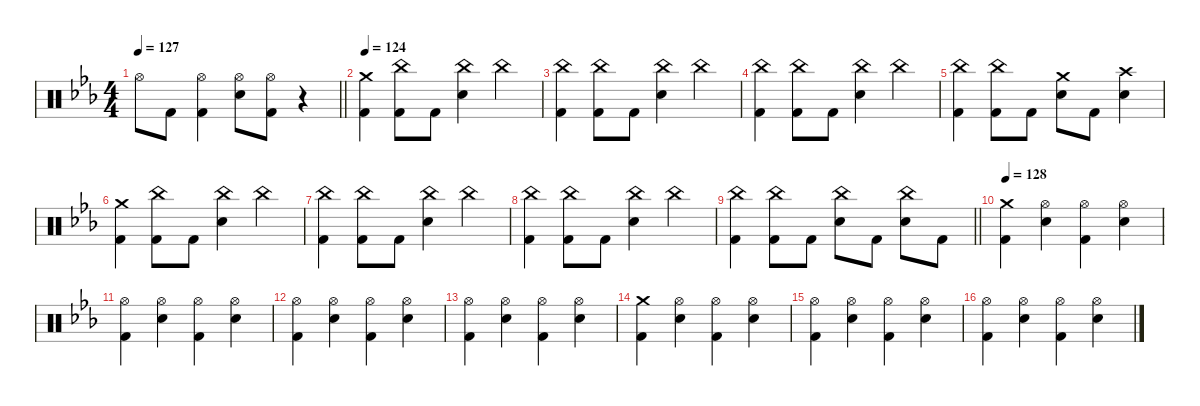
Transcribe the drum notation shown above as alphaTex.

\defaultSystemsLayout 4
\hideDynamics
\bracketExtendMode nobrackets
\singleTrackTrackNamePolicy hidden
\multiTrackTrackNamePolicy hidden
\firstSystemTrackNameMode fullname
\firstSystemTrackNameOrientation horizontal
\otherSystemsTrackNameOrientation horizontal
\track ("Drums" "drm.") {instrument percussion}
\staff {score}
\articulation defaults
\ts (4 4)
\tempo 127
\clef neutral
\barLineRight lightlight
\ks cminor "Hi-Hat (open)"{acc forcenatural}.8{dy mp} "Kick (hit) 2"{acc forcenatural}.8{dy f}
("Hi-Hat (open)"{acc forcenatural} "Kick (hit) 2"{acc forcenatural}).4{dy mp} ("Hi-Hat (open)"{acc forcenatural} "Snare (hit) 2"{acc forcenatural}).8 ("Hi-Hat (open)"{acc forcenatural} "Kick (hit) 2"{acc forcenatural}).8 r.4 |
\tempo 124
("Crash medium (hit)"{acc forcenatural} "Kick (hit) 2"{acc forcenatural}).4{dy f} ("China (hit)"{acc forcenatural} "Kick (hit) 2"{acc forcenatural}).8{dy mp} "Kick (hit) 2"{acc forcenatural}.8{dy f} ("China (hit)"{acc forcenatural} "Snare (hit) 2"{acc forcenatural}).4{dy mp} "China (hit)"{acc forcenatural}.4 |
("China (hit)"{acc forcenatural} "Kick (hit) 2"{acc forcenatural}).4 ("China (hit)"{acc forcenatural} "Kick (hit) 2"{acc forcenatural}).8 "Kick (hit) 2"{acc forcenatural}.8{dy f} ("China (hit)"{acc forcenatural} "Snare (hit) 2"{acc forcenatural}).4{dy mp} "China (hit)"{acc forcenatural}.4 |
("China (hit)"{acc forcenatural} "Kick (hit) 2"{acc forcenatural}).4 ("China (hit)"{acc forcenatural} "Kick (hit) 2"{acc forcenatural}).8 "Kick (hit) 2"{acc forcenatural}.8{dy f} ("China (hit)"{acc forcenatural} "Snare (hit) 2"{acc forcenatural}).4{dy mp} "China (hit)"{acc forcenatural}.4 |
("China (hit)"{acc forcenatural} "Kick (hit) 2"{acc forcenatural}).4 ("China (hit)"{acc forcenatural} "Kick (hit) 2"{acc forcenatural}).8 "Kick (hit) 2"{acc forcenatural}.8{dy f} ("Crash medium (hit)"{acc forcenatural} "Snare (hit) 2"{acc forcenatural}).8 "Kick (hit) 2"{acc forcenatural}.8 ("Crash high (hit)"{acc forcenatural} "Snare (hit) 2"{acc forcenatural}).4 |
("Crash medium (hit)"{acc forcenatural} "Kick (hit) 2"{acc forcenatural}).4 ("China (hit)"{acc forcenatural} "Kick (hit) 2"{acc forcenatural}).8{dy mp} "Kick (hit) 2"{acc forcenatural}.8{dy f} ("China (hit)"{acc forcenatural} "Snare (hit) 2"{acc forcenatural}).4{dy mp} "China (hit)"{acc forcenatural}.4 |
("China (hit)"{acc forcenatural} "Kick (hit) 2"{acc forcenatural}).4 ("China (hit)"{acc forcenatural} "Kick (hit) 2"{acc forcenatural}).8 "Kick (hit) 2"{acc forcenatural}.8{dy f} ("China (hit)"{acc forcenatural} "Snare (hit) 2"{acc forcenatural}).4{dy mp} "China (hit)"{acc forcenatural}.4 |
("China (hit)"{acc forcenatural} "Kick (hit) 2"{acc forcenatural}).4 ("China (hit)"{acc forcenatural} "Kick (hit) 2"{acc forcenatural}).8 "Kick (hit) 2"{acc forcenatural}.8{dy f} ("China (hit)"{acc forcenatural} "Snare (hit) 2"{acc forcenatural}).4{dy mp} "China (hit)"{acc forcenatural}.4 |
\barLineRight lightlight
("China (hit)"{acc forcenatural} "Kick (hit) 2"{acc forcenatural}).4 ("China (hit)"{acc forcenatural} "Kick (hit) 2"{acc forcenatural}).8 "Kick (hit) 2"{acc forcenatural}.8{dy f} ("China (hit)"{acc forcenatural} "Snare (hit) 2"{acc forcenatural}).8{dy mp} "Kick (hit) 2"{acc forcenatural}.8{dy f} ("China (hit)"{acc forcenatural} "Snare (hit) 2"{acc forcenatural}).8{dy mp} "Kick (hit) 2"{acc forcenatural}.8{dy f} |
\tempo 128
("Crash medium (hit)"{acc forcenatural} "Kick (hit) 2"{acc forcenatural}).4 ("Hi-Hat (open)"{acc forcenatural} "Snare (hit) 2"{acc forcenatural}).4{dy mp} ("Hi-Hat (open)"{acc forcenatural} "Kick (hit) 2"{acc forcenatural}).4 ("Hi-Hat (open)"{acc forcenatural} "Snare (hit) 2"{acc forcenatural}).4 |
("Hi-Hat (open)"{acc forcenatural} "Kick (hit) 2"{acc forcenatural}).4 ("Hi-Hat (open)"{acc forcenatural} "Snare (hit) 2"{acc forcenatural}).4 ("Hi-Hat (open)"{acc forcenatural} "Kick (hit) 2"{acc forcenatural}).4 ("Hi-Hat (open)"{acc forcenatural} "Snare (hit) 2"{acc forcenatural}).4 |
("Hi-Hat (open)"{acc forcenatural} "Kick (hit) 2"{acc forcenatural}).4 ("Hi-Hat (open)"{acc forcenatural} "Snare (hit) 2"{acc forcenatural}).4 ("Hi-Hat (open)"{acc forcenatural} "Kick (hit) 2"{acc forcenatural}).4 ("Hi-Hat (open)"{acc forcenatural} "Snare (hit) 2"{acc forcenatural}).4 |
("Hi-Hat (open)"{acc forcenatural} "Kick (hit) 2"{acc forcenatural}).4 ("Hi-Hat (open)"{acc forcenatural} "Snare (hit) 2"{acc forcenatural}).4 ("Hi-Hat (open)"{acc forcenatural} "Kick (hit) 2"{acc forcenatural}).4 ("Hi-Hat (open)"{acc forcenatural} "Snare (hit) 2"{acc forcenatural}).4 |
("Crash medium (hit)"{acc forcenatural} "Kick (hit) 2"{acc forcenatural}).4{dy f} ("Hi-Hat (open)"{acc forcenatural} "Snare (hit) 2"{acc forcenatural}).4{dy mp} ("Hi-Hat (open)"{acc forcenatural} "Kick (hit) 2"{acc forcenatural}).4 ("Hi-Hat (open)"{acc forcenatural} "Snare (hit) 2"{acc forcenatural}).4 |
("Hi-Hat (open)"{acc forcenatural} "Kick (hit) 2"{acc forcenatural}).4 ("Hi-Hat (open)"{acc forcenatural} "Snare (hit) 2"{acc forcenatural}).4 ("Hi-Hat (open)"{acc forcenatural} "Kick (hit) 2"{acc forcenatural}).4 ("Hi-Hat (open)"{acc forcenatural} "Snare (hit) 2"{acc forcenatural}).4 |
("Hi-Hat (open)"{acc forcenatural} "Kick (hit) 2"{acc forcenatural}).4 ("Hi-Hat (open)"{acc forcenatural} "Snare (hit) 2"{acc forcenatural}).4 ("Hi-Hat (open)"{acc forcenatural} "Kick (hit) 2"{acc forcenatural}).4 ("Hi-Hat (open)"{acc forcenatural} "Snare (hit) 2"{acc forcenatural}).4
